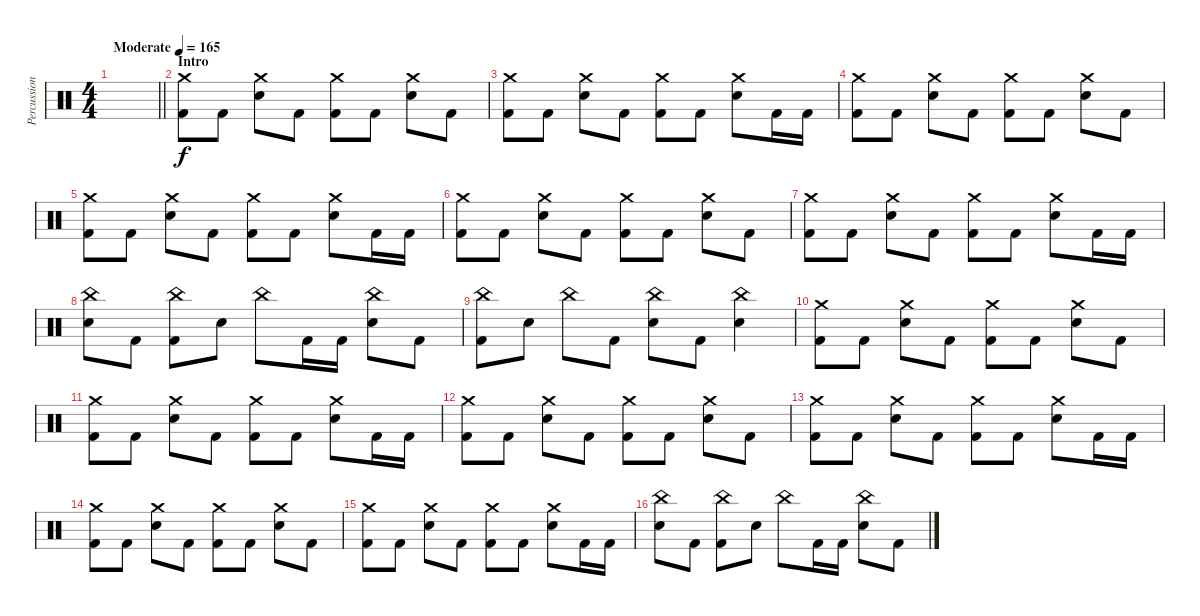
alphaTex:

\track ("Percussions" "Percussion") {instrument percussion}
\staff
\articulation defaults
\ts (4 4)
\tempo (165 "Moderate")
\clef neutral
\barLineRight lightlight
\ks c
|
\section ("" "Intro")
("Crash medium (hit)" "Kick (hit) 2").8 "Kick (hit) 2".8 ("Crash medium (hit)" "Electric Snare (hit)").8 "Kick (hit) 2".8 ("Crash medium (hit)" "Kick (hit) 2").8 "Kick (hit) 2".8 ("Crash medium (hit)" "Electric Snare (hit)").8 "Kick (hit) 2".8 |
("Crash medium (hit)" "Kick (hit) 2").8 "Kick (hit) 2".8 ("Crash medium (hit)" "Electric Snare (hit)").8 "Kick (hit) 2".8 ("Crash medium (hit)" "Kick (hit) 2").8 "Kick (hit) 2".8 ("Crash medium (hit)" "Electric Snare (hit)").8 "Kick (hit) 2".16 "Kick (hit) 2".16 |
("Crash medium (hit)" "Kick (hit) 2").8 "Kick (hit) 2".8 ("Crash medium (hit)" "Electric Snare (hit)").8 "Kick (hit) 2".8 ("Crash medium (hit)" "Kick (hit) 2").8 "Kick (hit) 2".8 ("Crash medium (hit)" "Electric Snare (hit)").8 "Kick (hit) 2".8 |
("Crash medium (hit)" "Kick (hit) 2").8 "Kick (hit) 2".8 ("Crash medium (hit)" "Electric Snare (hit)").8 "Kick (hit) 2".8 ("Crash medium (hit)" "Kick (hit) 2").8 "Kick (hit) 2".8 ("Crash medium (hit)" "Electric Snare (hit)").8 "Kick (hit) 2".16 "Kick (hit) 2".16 |
("Crash medium (hit)" "Kick (hit) 2").8 "Kick (hit) 2".8 ("Crash medium (hit)" "Electric Snare (hit)").8 "Kick (hit) 2".8 ("Crash medium (hit)" "Kick (hit) 2").8 "Kick (hit) 2".8 ("Crash medium (hit)" "Electric Snare (hit)").8 "Kick (hit) 2".8 |
("Crash medium (hit)" "Kick (hit) 2").8 "Kick (hit) 2".8 ("Crash medium (hit)" "Electric Snare (hit)").8 "Kick (hit) 2".8 ("Crash medium (hit)" "Kick (hit) 2").8 "Kick (hit) 2".8 ("Crash medium (hit)" "Electric Snare (hit)").8 "Kick (hit) 2".16 "Kick (hit) 2".16 |
("China (hit)" "Electric Snare (hit)").8 "Kick (hit) 2".8 ("China (hit)" "Kick (hit) 2").8 "Electric Snare (hit)".8 "China (hit)".8 "Kick (hit) 2".16 "Kick (hit) 2".16 ("China (hit)" "Electric Snare (hit)").8 "Kick (hit) 2".8 |
("China (hit)" "Kick (hit) 2").8 "Electric Snare (hit)".8 "China (hit)".8 "Kick (hit) 2".8 ("China (hit)" "Electric Snare (hit)").8 "Kick (hit) 2".8 ("China (hit)" "Electric Snare (hit)").4 |
("Crash medium (hit)" "Kick (hit) 2").8 "Kick (hit) 2".8 ("Crash medium (hit)" "Electric Snare (hit)").8 "Kick (hit) 2".8 ("Crash medium (hit)" "Kick (hit) 2").8 "Kick (hit) 2".8 ("Crash medium (hit)" "Electric Snare (hit)").8 "Kick (hit) 2".8 |
("Crash medium (hit)" "Kick (hit) 2").8 "Kick (hit) 2".8 ("Crash medium (hit)" "Electric Snare (hit)").8 "Kick (hit) 2".8 ("Crash medium (hit)" "Kick (hit) 2").8 "Kick (hit) 2".8 ("Crash medium (hit)" "Electric Snare (hit)").8 "Kick (hit) 2".16 "Kick (hit) 2".16 |
("Crash medium (hit)" "Kick (hit) 2").8 "Kick (hit) 2".8 ("Crash medium (hit)" "Electric Snare (hit)").8 "Kick (hit) 2".8 ("Crash medium (hit)" "Kick (hit) 2").8 "Kick (hit) 2".8 ("Crash medium (hit)" "Electric Snare (hit)").8 "Kick (hit) 2".8 |
("Crash medium (hit)" "Kick (hit) 2").8 "Kick (hit) 2".8 ("Crash medium (hit)" "Electric Snare (hit)").8 "Kick (hit) 2".8 ("Crash medium (hit)" "Kick (hit) 2").8 "Kick (hit) 2".8 ("Crash medium (hit)" "Electric Snare (hit)").8 "Kick (hit) 2".16 "Kick (hit) 2".16 |
("Crash medium (hit)" "Kick (hit) 2").8 "Kick (hit) 2".8 ("Crash medium (hit)" "Electric Snare (hit)").8 "Kick (hit) 2".8 ("Crash medium (hit)" "Kick (hit) 2").8 "Kick (hit) 2".8 ("Crash medium (hit)" "Electric Snare (hit)").8 "Kick (hit) 2".8 |
("Crash medium (hit)" "Kick (hit) 2").8 "Kick (hit) 2".8 ("Crash medium (hit)" "Electric Snare (hit)").8 "Kick (hit) 2".8 ("Crash medium (hit)" "Kick (hit) 2").8 "Kick (hit) 2".8 ("Crash medium (hit)" "Electric Snare (hit)").8 "Kick (hit) 2".16 "Kick (hit) 2".16 |
("China (hit)" "Electric Snare (hit)").8 "Kick (hit) 2".8 ("China (hit)" "Kick (hit) 2").8 "Electric Snare (hit)".8 "China (hit)".8 "Kick (hit) 2".16 "Kick (hit) 2".16 ("China (hit)" "Electric Snare (hit)").8 "Kick (hit) 2".8
